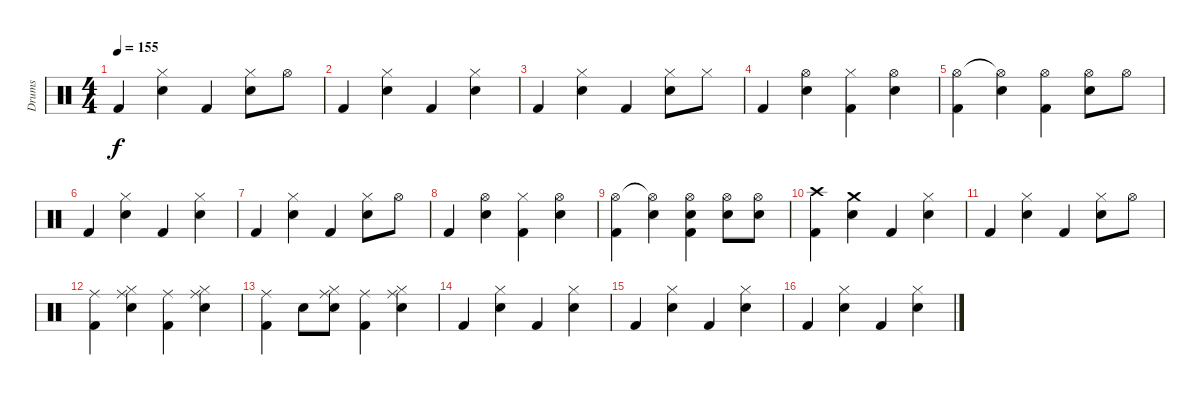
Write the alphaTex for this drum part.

\track ("Drums" "Drums") {instrument percussion}
\staff {score}
\articulation defaults
\ts (4 4)
\tempo 155
\clef neutral
\ks c "Kick (hit) 2".4{dy f}
("Electric Snare (hit)" "Hi-Hat (closed)").4 "Kick (hit) 2".4 ("Electric Snare (hit)" "Hi-Hat (closed)").8 "Hi-Hat (open)".8 |
"Kick (hit) 2".4 ("Electric Snare (hit)" "Hi-Hat (closed)").4 "Kick (hit) 2".4 ("Electric Snare (hit)" "Hi-Hat (closed)").4 |
"Kick (hit) 2".4 ("Electric Snare (hit)" "Hi-Hat (closed)").4 "Kick (hit) 2".4 ("Electric Snare (hit)" "Hi-Hat (closed)").8 "Hi-Hat (closed)".8 |
"Kick (hit) 2".4 ("Electric Snare (hit)" "Hi-Hat (open)").4 ("Kick (hit) 2" "Hi-Hat (closed)").4 ("Electric Snare (hit)" "Hi-Hat (open)").4 |
("Kick (hit) 2" "Hi-Hat (open)").4 ("Electric Snare (hit)" "Hi-Hat (open)"{t}).4 ("Kick (hit) 2" "Hi-Hat (open)").4 ("Electric Snare (hit)" "Hi-Hat (open)").8 "Hi-Hat (open)".8 |
"Kick (hit) 2".4 ("Electric Snare (hit)" "Hi-Hat (closed)").4 "Kick (hit) 2".4 ("Electric Snare (hit)" "Hi-Hat (closed)").4 |
"Kick (hit) 2".4 ("Electric Snare (hit)" "Hi-Hat (closed)").4 "Kick (hit) 2".4 ("Electric Snare (hit)" "Hi-Hat (closed)").8 "Hi-Hat (open)".8 |
"Kick (hit) 2".4 ("Electric Snare (hit)" "Hi-Hat (open)").4 ("Kick (hit) 2" "Hi-Hat (closed)").4 ("Electric Snare (hit)" "Hi-Hat (open)").4 |
("Kick (hit) 2" "Hi-Hat (open)").4 ("Electric Snare (hit)" "Hi-Hat (open)"{t}).4 ("Kick (hit) 2" "Electric Snare (hit)" "Hi-Hat (open)").4 ("Electric Snare (hit)" "Hi-Hat (open)").8 ("Electric Snare (hit)" "Hi-Hat (open)").8 |
("Kick (hit) 2" "Crash high (hit)").4 ("Electric Snare (hit)" "Crash medium (hit)").4 "Kick (hit) 2".4 ("Electric Snare (hit)" "Hi-Hat (closed)").4 |
"Kick (hit) 2".4 ("Electric Snare (hit)" "Hi-Hat (closed)").4 "Kick (hit) 2".4 ("Electric Snare (hit)" "Hi-Hat (closed)").8 "Hi-Hat (open)".8 |
("Kick (hit) 2" "Ride (middle)").4 ("Electric Snare (hit)" "Hi-Hat (closed)" "Ride (middle)").4 ("Kick (hit) 2" "Ride (middle)").4 ("Electric Snare (hit)" "Hi-Hat (closed)" "Ride (middle)").4 |
("Kick (hit) 2" "Ride (middle)").4 "Electric Snare (hit)".8 ("Electric Snare (hit)" "Hi-Hat (closed)" "Ride (middle)").8 ("Kick (hit) 2" "Ride (middle)").4 ("Electric Snare (hit)" "Hi-Hat (closed)" "Ride (middle)").4 |
"Kick (hit) 2".4 ("Electric Snare (hit)" "Hi-Hat (closed)").4 "Kick (hit) 2".4 ("Electric Snare (hit)" "Hi-Hat (closed)").4 |
"Kick (hit) 2".4 ("Electric Snare (hit)" "Hi-Hat (closed)").4 "Kick (hit) 2".4 ("Electric Snare (hit)" "Hi-Hat (closed)").4 |
"Kick (hit) 2".4 ("Electric Snare (hit)" "Hi-Hat (closed)").4 "Kick (hit) 2".4 ("Electric Snare (hit)" "Hi-Hat (closed)").4
